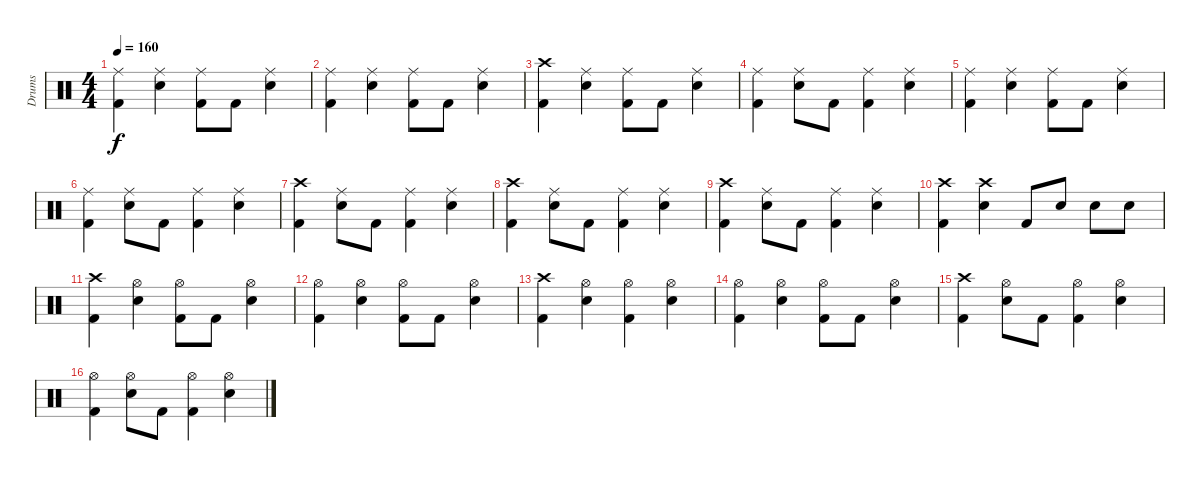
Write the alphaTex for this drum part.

\track ("Drums" "Drums") {instrument percussion}
\staff {score}
\articulation defaults
\ts (4 4)
\tempo 160
\clef neutral
\ks c
("Ride (middle)" "Kick (hit) 2").4{dy f} ("Ride (middle)" "Electric Snare (hit)").4 ("Ride (middle)" "Kick (hit) 2").8 "Kick (hit) 2".8 ("Ride (middle)" "Electric Snare (hit)").4 |
("Ride (middle)" "Kick (hit) 2").4 ("Ride (middle)" "Electric Snare (hit)").4 ("Ride (middle)" "Kick (hit) 2").8 "Kick (hit) 2".8 ("Ride (middle)" "Electric Snare (hit)").4 |
("Crash high (hit)" "Kick (hit) 2").4 ("Ride (middle)" "Electric Snare (hit)").4 ("Ride (middle)" "Kick (hit) 2").8 "Kick (hit) 2".8 ("Ride (middle)" "Electric Snare (hit)").4 |
("Ride (middle)" "Kick (hit) 2").4 ("Ride (middle)" "Electric Snare (hit)").8 "Kick (hit) 2".8 ("Ride (middle)" "Kick (hit) 2").4 ("Ride (middle)" "Electric Snare (hit)").4 |
("Ride (middle)" "Kick (hit) 2").4 ("Ride (middle)" "Electric Snare (hit)").4 ("Ride (middle)" "Kick (hit) 2").8 "Kick (hit) 2".8 ("Ride (middle)" "Electric Snare (hit)").4 |
("Ride (middle)" "Kick (hit) 2").4 ("Ride (middle)" "Electric Snare (hit)").8 "Kick (hit) 2".8 ("Ride (middle)" "Kick (hit) 2").4 ("Ride (middle)" "Electric Snare (hit)").4 |
("Crash high (hit)" "Kick (hit) 2").4 ("Ride (middle)" "Electric Snare (hit)").8 "Kick (hit) 2".8 ("Ride (middle)" "Kick (hit) 2").4 ("Ride (middle)" "Electric Snare (hit)").4 |
("Crash high (hit)" "Kick (hit) 2").4 ("Ride (middle)" "Electric Snare (hit)").8 "Kick (hit) 2".8 ("Ride (middle)" "Kick (hit) 2").4 ("Ride (middle)" "Electric Snare (hit)").4 |
("Crash high (hit)" "Kick (hit) 2").4 ("Ride (middle)" "Electric Snare (hit)").8 "Kick (hit) 2".8 ("Ride (middle)" "Kick (hit) 2").4 ("Ride (middle)" "Electric Snare (hit)").4 |
("Crash high (hit)" "Kick (hit) 2").4 ("Crash high (hit)" "Electric Snare (hit)").4 "Kick (hit) 2".8 "Electric Snare (hit)".8 "Electric Snare (hit)".8 "Electric Snare (hit)".8 |
("Crash high (hit)" "Kick (hit) 2").4 ("Hi-Hat (open)" "Electric Snare (hit)").4 ("Hi-Hat (open)" "Kick (hit) 2").8 "Kick (hit) 2".8 ("Hi-Hat (open)" "Electric Snare (hit)").4 |
("Hi-Hat (open)" "Kick (hit) 2").4 ("Hi-Hat (open)" "Electric Snare (hit)").4 ("Hi-Hat (open)" "Kick (hit) 2").8 "Kick (hit) 2".8 ("Hi-Hat (open)" "Electric Snare (hit)").4 |
("Crash high (hit)" "Kick (hit) 2").4 ("Hi-Hat (open)" "Electric Snare (hit)").4 ("Hi-Hat (open)" "Kick (hit) 2").4 ("Hi-Hat (open)" "Electric Snare (hit)").4 |
("Hi-Hat (open)" "Kick (hit) 2").4 ("Hi-Hat (open)" "Electric Snare (hit)").4 ("Hi-Hat (open)" "Kick (hit) 2").8 "Kick (hit) 2".8 ("Hi-Hat (open)" "Electric Snare (hit)").4 |
("Crash high (hit)" "Kick (hit) 2").4 ("Hi-Hat (open)" "Electric Snare (hit)").8 "Kick (hit) 2".8 ("Hi-Hat (open)" "Kick (hit) 2").4 ("Hi-Hat (open)" "Electric Snare (hit)").4 |
("Hi-Hat (open)" "Kick (hit) 2").4 ("Hi-Hat (open)" "Electric Snare (hit)").8 "Kick (hit) 2".8 ("Hi-Hat (open)" "Kick (hit) 2").4 ("Hi-Hat (open)" "Electric Snare (hit)").4
